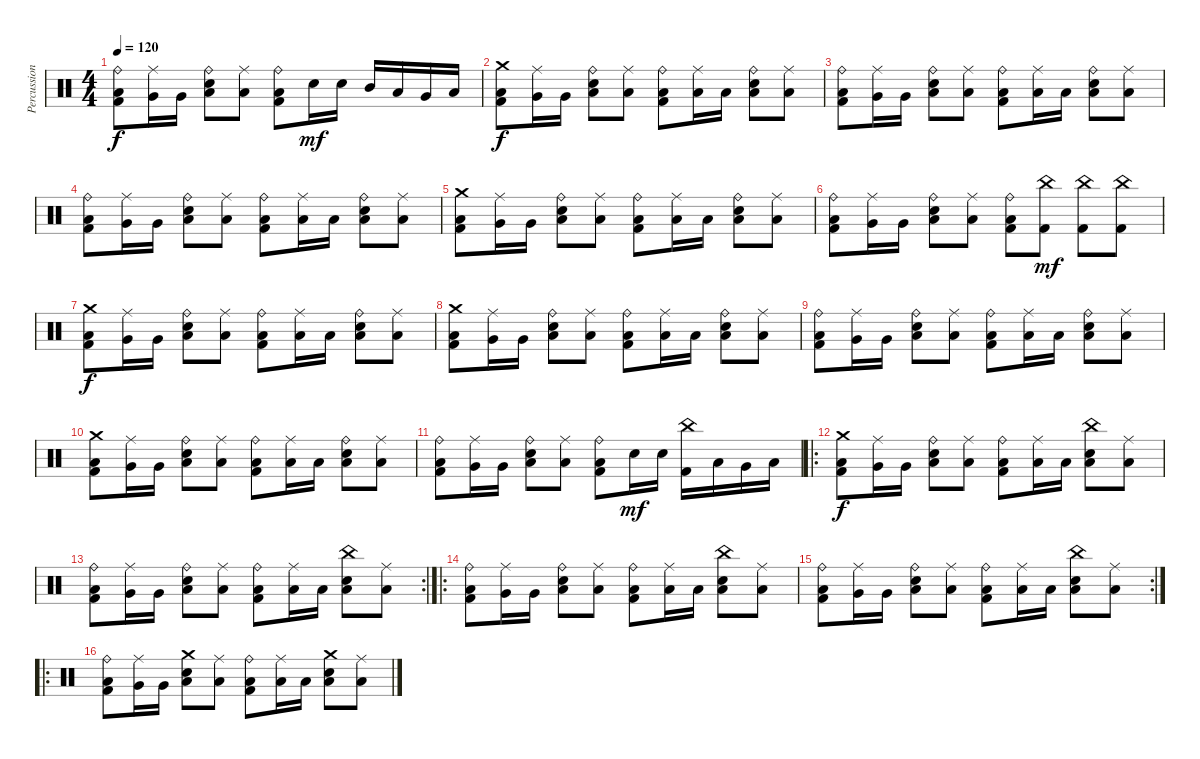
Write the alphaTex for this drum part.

\track ("Percussion" "Percussion") {instrument percussion}
\staff {score}
\articulation defaults
\ts (4 4)
\tempo 120
\clef neutral
\ks c
("Ride (bell)" "Low Floor Tom (hit)" "Kick (hit) 2").8{dy f} ("Very Low Tom (hit)" "Ride (middle)").16 "Very Low Tom (hit)".16 ("Ride (bell)" "Low Floor Tom (hit)" "Snare (hit) 2").8 ("Low Floor Tom (hit)" "Ride (middle)").8 ("Ride (bell)" "Low Floor Tom (hit)" "Kick (hit) 2").8 "Snare (hit) 2".16{dy mf} "Snare (hit) 2".16 "Mid Tom (hit)".16 "Low Tom (hit)".16 "Very Low Tom (hit)".16 "Low Floor Tom (hit)".16 |
("Crash medium (hit)" "Low Floor Tom (hit)" "Kick (hit) 2").8{dy f} ("Very Low Tom (hit)" "Ride (middle)").16 "Very Low Tom (hit)".16 ("Ride (bell)" "Low Floor Tom (hit)" "Snare (hit) 2").8 ("Low Floor Tom (hit)" "Ride (middle)").8 ("Ride (bell)" "Low Floor Tom (hit)" "Kick (hit) 2").8 ("Low Floor Tom (hit)" "Ride (middle)").16 "Low Floor Tom (hit)".16 ("Ride (bell)" "Low Floor Tom (hit)" "Snare (hit) 2").8 ("Low Floor Tom (hit)" "Ride (middle)").8 |
("Ride (bell)" "Low Floor Tom (hit)" "Kick (hit) 2").8 ("Very Low Tom (hit)" "Ride (middle)").16 "Very Low Tom (hit)".16 ("Ride (bell)" "Low Floor Tom (hit)" "Snare (hit) 2").8 ("Low Floor Tom (hit)" "Ride (middle)").8 ("Ride (bell)" "Low Floor Tom (hit)" "Kick (hit) 2").8 ("Low Floor Tom (hit)" "Ride (middle)").16 "Low Floor Tom (hit)".16 ("Ride (bell)" "Low Floor Tom (hit)" "Snare (hit) 2").8 ("Low Floor Tom (hit)" "Ride (middle)").8 |
("Ride (bell)" "Low Floor Tom (hit)" "Kick (hit) 2").8 ("Very Low Tom (hit)" "Ride (middle)").16 "Very Low Tom (hit)".16 ("Ride (bell)" "Low Floor Tom (hit)" "Snare (hit) 2").8 ("Low Floor Tom (hit)" "Ride (middle)").8 ("Ride (bell)" "Low Floor Tom (hit)" "Kick (hit) 2").8 ("Low Floor Tom (hit)" "Ride (middle)").16 "Low Floor Tom (hit)".16 ("Ride (bell)" "Low Floor Tom (hit)" "Snare (hit) 2").8 ("Low Floor Tom (hit)" "Ride (middle)").8 |
("Crash medium (hit)" "Low Floor Tom (hit)" "Kick (hit) 2").8 ("Very Low Tom (hit)" "Ride (middle)").16 "Very Low Tom (hit)".16 ("Ride (bell)" "Low Floor Tom (hit)" "Snare (hit) 2").8 ("Low Floor Tom (hit)" "Ride (middle)").8 ("Ride (bell)" "Low Floor Tom (hit)" "Kick (hit) 2").8 ("Low Floor Tom (hit)" "Ride (middle)").16 "Low Floor Tom (hit)".16 ("Ride (bell)" "Low Floor Tom (hit)" "Snare (hit) 2").8 ("Low Floor Tom (hit)" "Ride (middle)").8 |
("Ride (bell)" "Low Floor Tom (hit)" "Kick (hit) 2").8 ("Very Low Tom (hit)" "Ride (middle)").16 "Very Low Tom (hit)".16 ("Ride (bell)" "Low Floor Tom (hit)" "Snare (hit) 2").8 ("Low Floor Tom (hit)" "Ride (middle)").8 ("Ride (bell)" "Low Floor Tom (hit)" "Kick (hit) 2").8 ("China (hit)" "Kick (hit) 2").8{dy mf} ("China (hit)" "Kick (hit) 2").8 ("China (hit)" "Kick (hit) 2").8 |
("Crash medium (hit)" "Low Floor Tom (hit)" "Kick (hit) 2").8{dy f} ("Very Low Tom (hit)" "Ride (middle)").16 "Very Low Tom (hit)".16 ("Ride (bell)" "Low Floor Tom (hit)" "Snare (hit) 2").8 ("Low Floor Tom (hit)" "Ride (middle)").8 ("Ride (bell)" "Low Floor Tom (hit)" "Kick (hit) 2").8 ("Low Floor Tom (hit)" "Ride (middle)").16 "Low Floor Tom (hit)".16 ("Ride (bell)" "Low Floor Tom (hit)" "Snare (hit) 2").8 ("Low Floor Tom (hit)" "Ride (middle)").8 |
("Crash medium (hit)" "Low Floor Tom (hit)" "Kick (hit) 2").8 ("Very Low Tom (hit)" "Ride (middle)").16 "Very Low Tom (hit)".16 ("Ride (bell)" "Low Floor Tom (hit)" "Snare (hit) 2").8 ("Low Floor Tom (hit)" "Ride (middle)").8 ("Ride (bell)" "Low Floor Tom (hit)" "Kick (hit) 2").8 ("Low Floor Tom (hit)" "Ride (middle)").16 "Low Floor Tom (hit)".16 ("Ride (bell)" "Low Floor Tom (hit)" "Snare (hit) 2").8 ("Low Floor Tom (hit)" "Ride (middle)").8 |
("Ride (bell)" "Low Floor Tom (hit)" "Kick (hit) 2").8 ("Very Low Tom (hit)" "Ride (middle)").16 "Very Low Tom (hit)".16 ("Ride (bell)" "Low Floor Tom (hit)" "Snare (hit) 2").8 ("Low Floor Tom (hit)" "Ride (middle)").8 ("Ride (bell)" "Low Floor Tom (hit)" "Kick (hit) 2").8 ("Low Floor Tom (hit)" "Ride (middle)").16 "Low Floor Tom (hit)".16 ("Ride (bell)" "Low Floor Tom (hit)" "Snare (hit) 2").8 ("Low Floor Tom (hit)" "Ride (middle)").8 |
("Crash medium (hit)" "Low Floor Tom (hit)" "Kick (hit) 2").8 ("Very Low Tom (hit)" "Ride (middle)").16 "Very Low Tom (hit)".16 ("Ride (bell)" "Low Floor Tom (hit)" "Snare (hit) 2").8 ("Low Floor Tom (hit)" "Ride (middle)").8 ("Ride (bell)" "Low Floor Tom (hit)" "Kick (hit) 2").8 ("Low Floor Tom (hit)" "Ride (middle)").16 "Low Floor Tom (hit)".16 ("Ride (bell)" "Low Floor Tom (hit)" "Snare (hit) 2").8 ("Low Floor Tom (hit)" "Ride (middle)").8 |
("Ride (bell)" "Low Floor Tom (hit)" "Kick (hit) 2").8 ("Very Low Tom (hit)" "Ride (middle)").16 "Very Low Tom (hit)".16 ("Ride (bell)" "Low Floor Tom (hit)" "Snare (hit) 2").8 ("Low Floor Tom (hit)" "Ride (middle)").8 ("Ride (bell)" "Low Floor Tom (hit)" "Kick (hit) 2").8 "Snare (hit) 2".16{dy mf} "Snare (hit) 2".16 ("China (hit)" "Kick (hit) 2").16 "Low Tom (hit)".16 "Very Low Tom (hit)".16 "Low Floor Tom (hit)".16 |
\ro
("Crash medium (hit)" "Low Floor Tom (hit)" "Kick (hit) 2").8{dy f} ("Very Low Tom (hit)" "Ride (middle)").16 "Very Low Tom (hit)".16 ("Ride (bell)" "Low Floor Tom (hit)" "Snare (hit) 2").8 ("Low Floor Tom (hit)" "Ride (middle)").8 ("Ride (bell)" "Low Floor Tom (hit)" "Kick (hit) 2").8 ("Low Floor Tom (hit)" "Ride (middle)").16 "Low Floor Tom (hit)".16 ("China (hit)" "Low Floor Tom (hit)" "Snare (hit) 2").8 ("Low Floor Tom (hit)" "Ride (middle)").8 |
\rc 2
("Ride (bell)" "Low Floor Tom (hit)" "Kick (hit) 2").8 ("Very Low Tom (hit)" "Ride (middle)").16 "Very Low Tom (hit)".16 ("Ride (bell)" "Low Floor Tom (hit)" "Snare (hit) 2").8 ("Low Floor Tom (hit)" "Ride (middle)").8 ("Ride (bell)" "Low Floor Tom (hit)" "Kick (hit) 2").8 ("Low Floor Tom (hit)" "Ride (middle)").16 "Low Floor Tom (hit)".16 ("China (hit)" "Low Floor Tom (hit)" "Snare (hit) 2").8 ("Low Floor Tom (hit)" "Ride (middle)").8 |
\ro
("Ride (bell)" "Low Floor Tom (hit)" "Kick (hit) 2").8 ("Very Low Tom (hit)" "Ride (middle)").16 "Very Low Tom (hit)".16 ("Ride (bell)" "Low Floor Tom (hit)" "Snare (hit) 2").8 ("Low Floor Tom (hit)" "Ride (middle)").8 ("Ride (bell)" "Low Floor Tom (hit)" "Kick (hit) 2").8 ("Low Floor Tom (hit)" "Ride (middle)").16 "Low Floor Tom (hit)".16 ("China (hit)" "Low Floor Tom (hit)" "Snare (hit) 2").8 ("Low Floor Tom (hit)" "Ride (middle)").8 |
\rc 2
("Ride (bell)" "Low Floor Tom (hit)" "Kick (hit) 2").8 ("Very Low Tom (hit)" "Ride (middle)").16 "Very Low Tom (hit)".16 ("Ride (bell)" "Low Floor Tom (hit)" "Snare (hit) 2").8 ("Low Floor Tom (hit)" "Ride (middle)").8 ("Ride (bell)" "Low Floor Tom (hit)" "Kick (hit) 2").8 ("Low Floor Tom (hit)" "Ride (middle)").16 "Low Floor Tom (hit)".16 ("China (hit)" "Low Floor Tom (hit)" "Snare (hit) 2").8 ("Low Floor Tom (hit)" "Ride (middle)").8 |
\ro
("Ride (bell)" "Low Floor Tom (hit)" "Kick (hit) 2").8 ("Very Low Tom (hit)" "Ride (middle)").16 "Very Low Tom (hit)".16 ("Crash medium (hit)" "Low Floor Tom (hit)" "Snare (hit) 2").8 ("Low Floor Tom (hit)" "Ride (middle)").8 ("Ride (bell)" "Low Floor Tom (hit)" "Kick (hit) 2").8 ("Low Floor Tom (hit)" "Ride (middle)").16 "Low Floor Tom (hit)".16 ("Crash medium (hit)" "Low Floor Tom (hit)" "Snare (hit) 2").8 ("Low Floor Tom (hit)" "Ride (middle)").8
